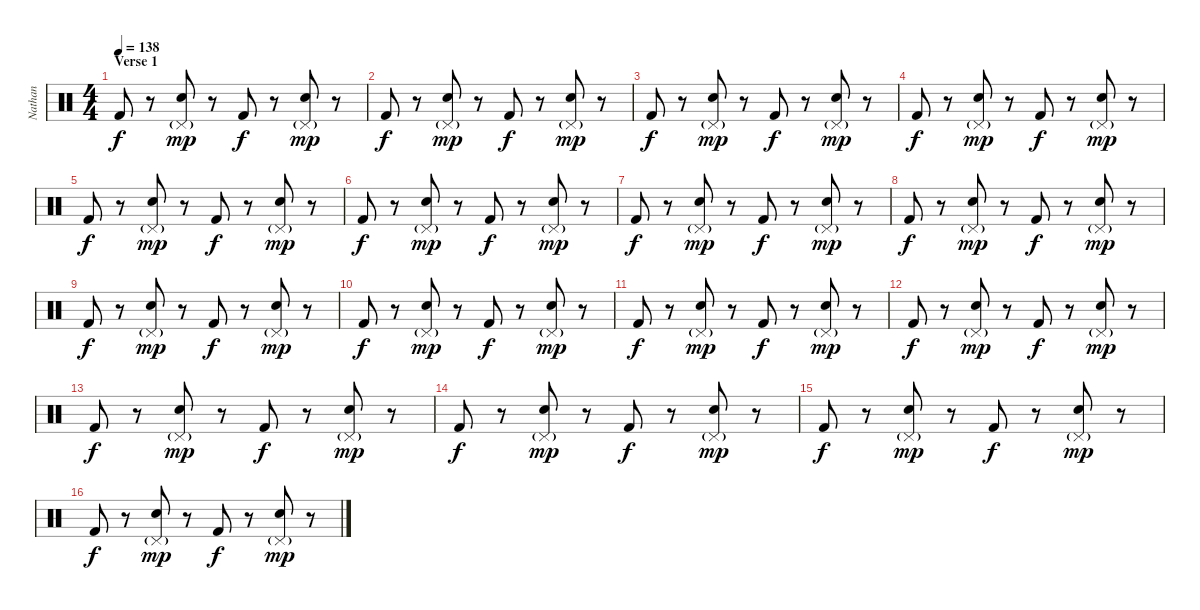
\track ("Nathan" "Nathan") {instrument percussion}
\staff {score}
\articulation defaults
\ts (4 4)
\section ("" "Verse 1")
\tempo 138
\clef neutral
\ks c "Kick (hit) 2".8{dy f}
r.8 ("Pedal Hi-Hat (hit)"{g} "Electric Snare (hit)").8{dy mp} r.8 "Kick (hit) 2".8{dy f} r.8 ("Pedal Hi-Hat (hit)"{g} "Electric Snare (hit)").8{dy mp} r.8 |
"Kick (hit) 2".8{dy f} r.8 ("Pedal Hi-Hat (hit)"{g} "Electric Snare (hit)").8{dy mp} r.8 "Kick (hit) 2".8{dy f} r.8 ("Pedal Hi-Hat (hit)"{g} "Electric Snare (hit)").8{dy mp} r.8 |
"Kick (hit) 2".8{dy f} r.8 ("Pedal Hi-Hat (hit)"{g} "Electric Snare (hit)").8{dy mp} r.8 "Kick (hit) 2".8{dy f} r.8 ("Pedal Hi-Hat (hit)"{g} "Electric Snare (hit)").8{dy mp} r.8 |
"Kick (hit) 2".8{dy f} r.8 ("Pedal Hi-Hat (hit)"{g} "Electric Snare (hit)").8{dy mp} r.8 "Kick (hit) 2".8{dy f} r.8 ("Pedal Hi-Hat (hit)"{g} "Electric Snare (hit)").8{dy mp} r.8 |
"Kick (hit) 2".8{dy f} r.8 ("Pedal Hi-Hat (hit)"{g} "Electric Snare (hit)").8{dy mp} r.8 "Kick (hit) 2".8{dy f} r.8 ("Pedal Hi-Hat (hit)"{g} "Electric Snare (hit)").8{dy mp} r.8 |
"Kick (hit) 2".8{dy f} r.8 ("Pedal Hi-Hat (hit)"{g} "Electric Snare (hit)").8{dy mp} r.8 "Kick (hit) 2".8{dy f} r.8 ("Pedal Hi-Hat (hit)"{g} "Electric Snare (hit)").8{dy mp} r.8 |
"Kick (hit) 2".8{dy f} r.8 ("Pedal Hi-Hat (hit)"{g} "Electric Snare (hit)").8{dy mp} r.8 "Kick (hit) 2".8{dy f} r.8 ("Pedal Hi-Hat (hit)"{g} "Electric Snare (hit)").8{dy mp} r.8 |
"Kick (hit) 2".8{dy f} r.8 ("Pedal Hi-Hat (hit)"{g} "Electric Snare (hit)").8{dy mp} r.8 "Kick (hit) 2".8{dy f} r.8 ("Pedal Hi-Hat (hit)"{g} "Electric Snare (hit)").8{dy mp} r.8 |
"Kick (hit) 2".8{dy f} r.8 ("Pedal Hi-Hat (hit)"{g} "Electric Snare (hit)").8{dy mp} r.8 "Kick (hit) 2".8{dy f} r.8 ("Pedal Hi-Hat (hit)"{g} "Electric Snare (hit)").8{dy mp} r.8 |
"Kick (hit) 2".8{dy f} r.8 ("Pedal Hi-Hat (hit)"{g} "Electric Snare (hit)").8{dy mp} r.8 "Kick (hit) 2".8{dy f} r.8 ("Pedal Hi-Hat (hit)"{g} "Electric Snare (hit)").8{dy mp} r.8 |
"Kick (hit) 2".8{dy f} r.8 ("Pedal Hi-Hat (hit)"{g} "Electric Snare (hit)").8{dy mp} r.8 "Kick (hit) 2".8{dy f} r.8 ("Pedal Hi-Hat (hit)"{g} "Electric Snare (hit)").8{dy mp} r.8 |
"Kick (hit) 2".8{dy f} r.8 ("Pedal Hi-Hat (hit)"{g} "Electric Snare (hit)").8{dy mp} r.8 "Kick (hit) 2".8{dy f} r.8 ("Pedal Hi-Hat (hit)"{g} "Electric Snare (hit)").8{dy mp} r.8 |
"Kick (hit) 2".8{dy f} r.8 ("Pedal Hi-Hat (hit)"{g} "Electric Snare (hit)").8{dy mp} r.8 "Kick (hit) 2".8{dy f} r.8 ("Pedal Hi-Hat (hit)"{g} "Electric Snare (hit)").8{dy mp} r.8 |
"Kick (hit) 2".8{dy f} r.8 ("Pedal Hi-Hat (hit)"{g} "Electric Snare (hit)").8{dy mp} r.8 "Kick (hit) 2".8{dy f} r.8 ("Pedal Hi-Hat (hit)"{g} "Electric Snare (hit)").8{dy mp} r.8 |
"Kick (hit) 2".8{dy f} r.8 ("Pedal Hi-Hat (hit)"{g} "Electric Snare (hit)").8{dy mp} r.8 "Kick (hit) 2".8{dy f} r.8 ("Pedal Hi-Hat (hit)"{g} "Electric Snare (hit)").8{dy mp} r.8 |
"Kick (hit) 2".8{dy f} r.8 ("Pedal Hi-Hat (hit)"{g} "Electric Snare (hit)").8{dy mp} r.8 "Kick (hit) 2".8{dy f} r.8 ("Pedal Hi-Hat (hit)"{g} "Electric Snare (hit)").8{dy mp} r.8
